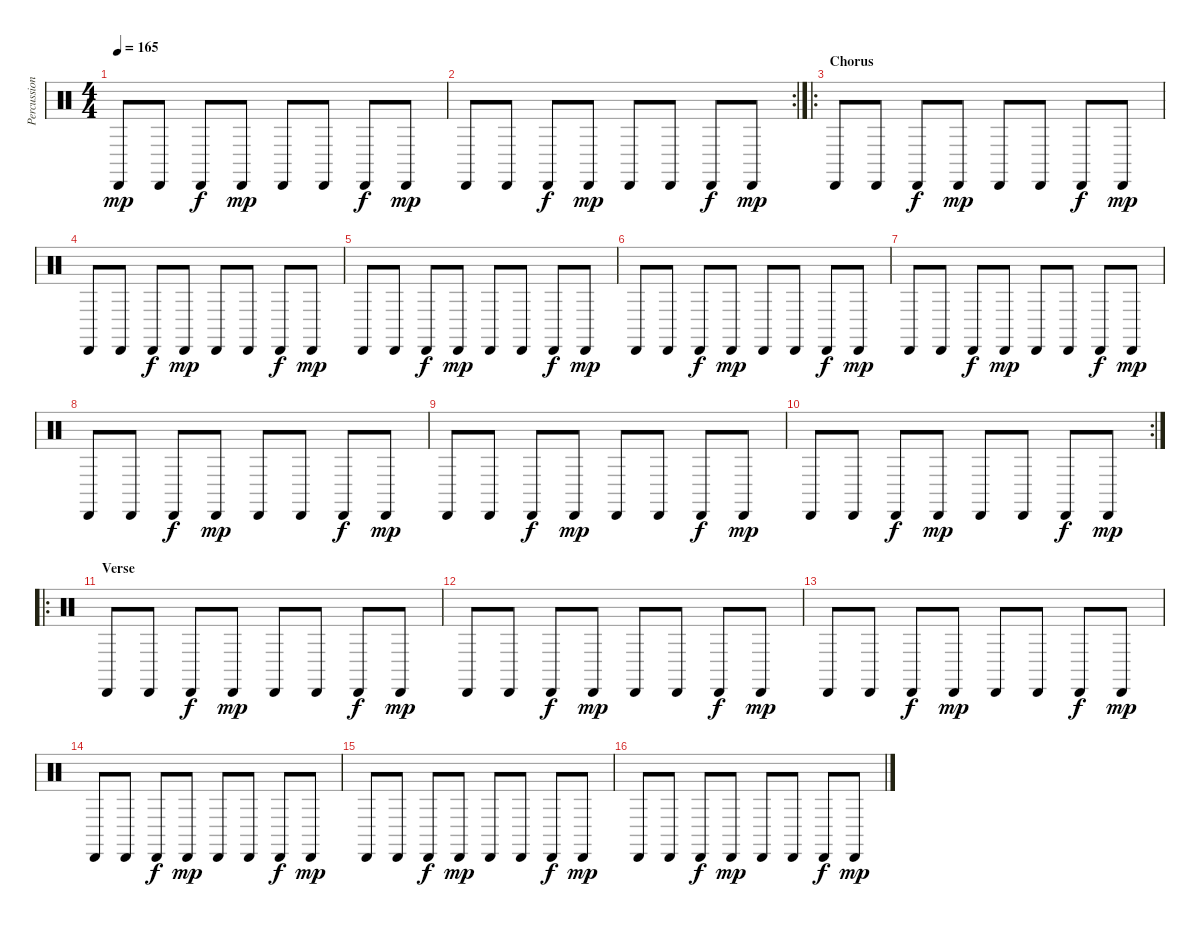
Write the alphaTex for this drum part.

\track ("Percussion" "Percussion") {instrument percussion}
\staff {score}
\articulation defaults
\ts (4 4)
\tempo 165
\clef neutral
\ks c "Cabasa (hit)".8{dy mp} "Cabasa (hit)".8 "Cabasa (hit)".8{dy f} "Cabasa (hit)".8{dy mp} "Cabasa (hit)".8 "Cabasa (hit)".8 "Cabasa (hit)".8{dy f} "Cabasa (hit)".8{dy mp}
|
\rc 2 "Cabasa (hit)".8 "Cabasa (hit)".8 "Cabasa (hit)".8{dy f} "Cabasa (hit)".8{dy mp} "Cabasa (hit)".8 "Cabasa (hit)".8 "Cabasa (hit)".8{dy f} "Cabasa (hit)".8{dy mp}
|
\ro
\section ("" "Chorus")
"Cabasa (hit)".8 "Cabasa (hit)".8 "Cabasa (hit)".8{dy f} "Cabasa (hit)".8{dy mp} "Cabasa (hit)".8 "Cabasa (hit)".8 "Cabasa (hit)".8{dy f} "Cabasa (hit)".8{dy mp} |
"Cabasa (hit)".8 "Cabasa (hit)".8 "Cabasa (hit)".8{dy f} "Cabasa (hit)".8{dy mp} "Cabasa (hit)".8 "Cabasa (hit)".8 "Cabasa (hit)".8{dy f} "Cabasa (hit)".8{dy mp} |
"Cabasa (hit)".8 "Cabasa (hit)".8 "Cabasa (hit)".8{dy f} "Cabasa (hit)".8{dy mp} "Cabasa (hit)".8 "Cabasa (hit)".8 "Cabasa (hit)".8{dy f} "Cabasa (hit)".8{dy mp} |
"Cabasa (hit)".8 "Cabasa (hit)".8 "Cabasa (hit)".8{dy f} "Cabasa (hit)".8{dy mp} "Cabasa (hit)".8 "Cabasa (hit)".8 "Cabasa (hit)".8{dy f} "Cabasa (hit)".8{dy mp} |
"Cabasa (hit)".8 "Cabasa (hit)".8 "Cabasa (hit)".8{dy f} "Cabasa (hit)".8{dy mp} "Cabasa (hit)".8 "Cabasa (hit)".8 "Cabasa (hit)".8{dy f} "Cabasa (hit)".8{dy mp} |
"Cabasa (hit)".8 "Cabasa (hit)".8 "Cabasa (hit)".8{dy f} "Cabasa (hit)".8{dy mp} "Cabasa (hit)".8 "Cabasa (hit)".8 "Cabasa (hit)".8{dy f} "Cabasa (hit)".8{dy mp} |
"Cabasa (hit)".8 "Cabasa (hit)".8 "Cabasa (hit)".8{dy f} "Cabasa (hit)".8{dy mp} "Cabasa (hit)".8 "Cabasa (hit)".8 "Cabasa (hit)".8{dy f} "Cabasa (hit)".8{dy mp} |
\rc 2 "Cabasa (hit)".8 "Cabasa (hit)".8 "Cabasa (hit)".8{dy f} "Cabasa (hit)".8{dy mp} "Cabasa (hit)".8 "Cabasa (hit)".8 "Cabasa (hit)".8{dy f} "Cabasa (hit)".8{dy mp}
|
\ro
\section ("" "Verse")
"Cabasa (hit)".8 "Cabasa (hit)".8 "Cabasa (hit)".8{dy f} "Cabasa (hit)".8{dy mp} "Cabasa (hit)".8 "Cabasa (hit)".8 "Cabasa (hit)".8{dy f} "Cabasa (hit)".8{dy mp} |
"Cabasa (hit)".8 "Cabasa (hit)".8 "Cabasa (hit)".8{dy f} "Cabasa (hit)".8{dy mp} "Cabasa (hit)".8 "Cabasa (hit)".8 "Cabasa (hit)".8{dy f} "Cabasa (hit)".8{dy mp} |
"Cabasa (hit)".8 "Cabasa (hit)".8 "Cabasa (hit)".8{dy f} "Cabasa (hit)".8{dy mp} "Cabasa (hit)".8 "Cabasa (hit)".8 "Cabasa (hit)".8{dy f} "Cabasa (hit)".8{dy mp} |
"Cabasa (hit)".8 "Cabasa (hit)".8 "Cabasa (hit)".8{dy f} "Cabasa (hit)".8{dy mp} "Cabasa (hit)".8 "Cabasa (hit)".8 "Cabasa (hit)".8{dy f} "Cabasa (hit)".8{dy mp} |
"Cabasa (hit)".8 "Cabasa (hit)".8 "Cabasa (hit)".8{dy f} "Cabasa (hit)".8{dy mp} "Cabasa (hit)".8 "Cabasa (hit)".8 "Cabasa (hit)".8{dy f} "Cabasa (hit)".8{dy mp} |
"Cabasa (hit)".8 "Cabasa (hit)".8 "Cabasa (hit)".8{dy f} "Cabasa (hit)".8{dy mp} "Cabasa (hit)".8 "Cabasa (hit)".8 "Cabasa (hit)".8{dy f} "Cabasa (hit)".8{dy mp}
